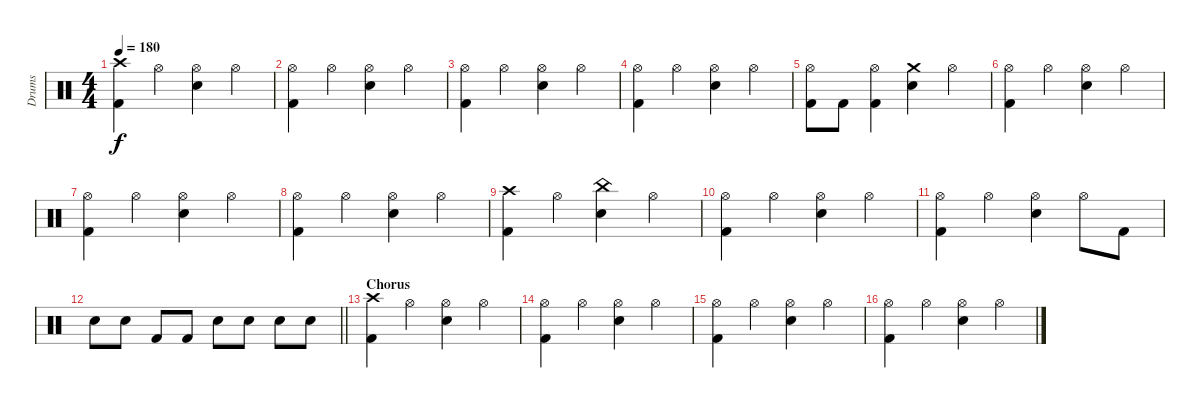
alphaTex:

\track ("Drums" "Drums") {instrument percussion}
\staff {score}
\articulation defaults
\ts (4 4)
\tempo 180
\clef neutral
\ks c
("Crash high (hit)" "Kick (hit) 2").4{dy f} "Hi-Hat (open)".4 ("Hi-Hat (open)" "Electric Snare (hit)").4 "Hi-Hat (open)".4 |
("Hi-Hat (open)" "Kick (hit) 2").4 "Hi-Hat (open)".4 ("Hi-Hat (open)" "Electric Snare (hit)").4 "Hi-Hat (open)".4 |
("Hi-Hat (open)" "Kick (hit) 2").4 "Hi-Hat (open)".4 ("Hi-Hat (open)" "Electric Snare (hit)").4 "Hi-Hat (open)".4 |
("Hi-Hat (open)" "Kick (hit) 2").4 "Hi-Hat (open)".4 ("Hi-Hat (open)" "Electric Snare (hit)").4 "Hi-Hat (open)".4 |
("Kick (hit) 2" "Hi-Hat (open)").8 "Kick (hit) 2".8 ("Kick (hit) 2" "Hi-Hat (open)").4 ("Crash medium (hit)" "Electric Snare (hit)").4 "Hi-Hat (open)".4 |
("Hi-Hat (open)" "Kick (hit) 2").4 "Hi-Hat (open)".4 ("Hi-Hat (open)" "Electric Snare (hit)").4 "Hi-Hat (open)".4 |
("Hi-Hat (open)" "Kick (hit) 2").4 "Hi-Hat (open)".4 ("Hi-Hat (open)" "Electric Snare (hit)").4 "Hi-Hat (open)".4 |
("Hi-Hat (open)" "Kick (hit) 2").4 "Hi-Hat (open)".4 ("Hi-Hat (open)" "Electric Snare (hit)").4 "Hi-Hat (open)".4 |
("Crash high (hit)" "Kick (hit) 2").4 "Hi-Hat (open)".4 ("China (hit)" "Electric Snare (hit)").4 "Hi-Hat (open)".4 |
("Hi-Hat (open)" "Kick (hit) 2").4 "Hi-Hat (open)".4 ("Hi-Hat (open)" "Electric Snare (hit)").4 "Hi-Hat (open)".4 |
("Hi-Hat (open)" "Kick (hit) 2").4 "Hi-Hat (open)".4 ("Hi-Hat (open)" "Electric Snare (hit)").4 "Hi-Hat (open)".8 "Kick (hit) 2".8 |
\barLineRight lightlight "Electric Snare (hit)".8 "Electric Snare (hit)".8 "Kick (hit) 2".8 "Kick (hit) 2".8 "Electric Snare (hit)".8 "Electric Snare (hit)".8 "Electric Snare (hit)".8 "Electric Snare (hit)".8
|
\section ("" "Chorus")
("Crash high (hit)" "Kick (hit) 2").4 "Hi-Hat (open)".4 ("Hi-Hat (open)" "Electric Snare (hit)").4 "Hi-Hat (open)".4 |
("Hi-Hat (open)" "Kick (hit) 2").4 "Hi-Hat (open)".4 ("Hi-Hat (open)" "Electric Snare (hit)").4 "Hi-Hat (open)".4 |
("Hi-Hat (open)" "Kick (hit) 2").4 "Hi-Hat (open)".4 ("Hi-Hat (open)" "Electric Snare (hit)").4 "Hi-Hat (open)".4 |
("Hi-Hat (open)" "Kick (hit) 2").4 "Hi-Hat (open)".4 ("Hi-Hat (open)" "Electric Snare (hit)").4 "Hi-Hat (open)".4
